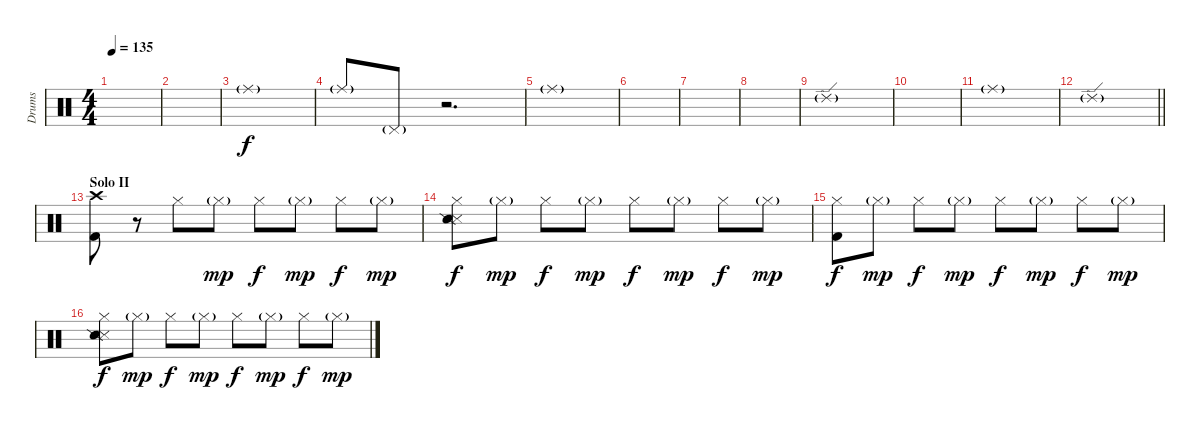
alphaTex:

\track ("Drums" "Drums") {instrument percussion}
\staff {score}
\articulation defaults
\ts (4 4)
\tempo 135
\clef neutral
\ks c
|
|
"Ride (middle)"{g}.1 |
"Ride (middle)"{g}.8 "Pedal Hi-Hat (hit)"{g}.8 r.2{d} |
"Ride (middle)"{g}.1 |
|
|
|
"Ride (edge) 2"{g}.1 |
|
"Ride (middle)"{g}.1 |
\barLineRight lightlight "Ride (edge) 2"{g}.1
|
\section ("" "Solo II")
("Crash high (hit)" "Kick (hit) 2").8{dy f} r.8 "Hi-Hat (closed)".8 "Hi-Hat (closed)"{g}.8{dy mp} "Hi-Hat (closed)".8{dy f} "Hi-Hat (closed)"{g}.8{dy mp} "Hi-Hat (closed)".8{dy f} "Hi-Hat (closed)"{g}.8{dy mp} |
("Hi-Hat (closed)" "Metronome (hit)" "Snare (side stick) 2").8{dy f} "Hi-Hat (closed)"{g}.8{dy mp} "Hi-Hat (closed)".8{dy f} "Hi-Hat (closed)"{g}.8{dy mp} "Hi-Hat (closed)".8{dy f} "Hi-Hat (closed)"{g}.8{dy mp} "Hi-Hat (closed)".8{dy f} "Hi-Hat (closed)"{g}.8{dy mp} |
("Hi-Hat (closed)" "Kick (hit) 2").8{dy f} "Hi-Hat (closed)"{g}.8{dy mp} "Hi-Hat (closed)".8{dy f} "Hi-Hat (closed)"{g}.8{dy mp} "Hi-Hat (closed)".8{dy f} "Hi-Hat (closed)"{g}.8{dy mp} "Hi-Hat (closed)".8{dy f} "Hi-Hat (closed)"{g}.8{dy mp} |
("Hi-Hat (closed)" "Metronome (hit)" "Snare (side stick) 2").8{dy f} "Hi-Hat (closed)"{g}.8{dy mp} "Hi-Hat (closed)".8{dy f} "Hi-Hat (closed)"{g}.8{dy mp} "Hi-Hat (closed)".8{dy f} "Hi-Hat (closed)"{g}.8{dy mp} "Hi-Hat (closed)".8{dy f} "Hi-Hat (closed)"{g}.8{dy mp}
